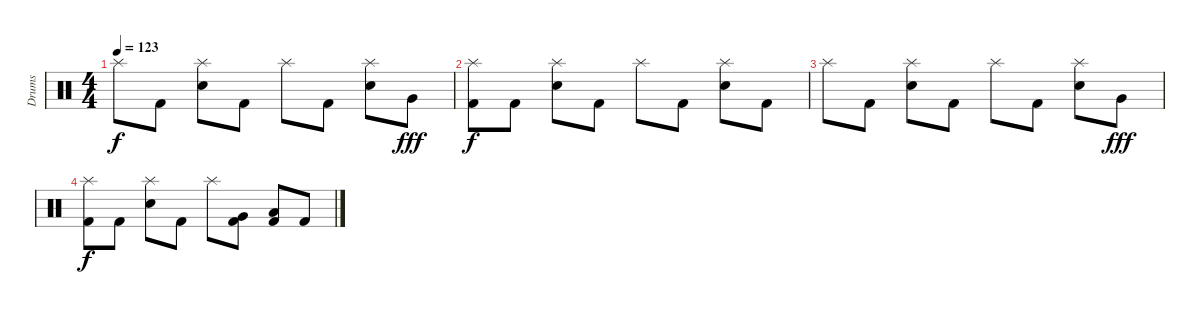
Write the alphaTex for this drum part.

\track ("Drums" "Drums") {instrument percussion}
\staff {score}
\articulation defaults
\ts (4 4)
\tempo 123
\clef neutral
\ks c "Splash (hit)".8{dy f} "Kick (hit) 2".8
("Splash (hit)" "Electric Snare (hit)").8 "Kick (hit) 2".8 "Splash (hit)".8 "Kick (hit) 2".8 ("Splash (hit)" "Electric Snare (hit)").8 "Very Low Tom (hit)".8{dy fff} |
("Splash (hit)" "Kick (hit) 2").8{dy f} "Kick (hit) 2".8 ("Splash (hit)" "Electric Snare (hit)").8 "Kick (hit) 2".8 "Splash (hit)".8 "Kick (hit) 2".8 ("Splash (hit)" "Electric Snare (hit)").8 "Kick (hit) 2".8 |
"Splash (hit)".8 "Kick (hit) 2".8 ("Splash (hit)" "Electric Snare (hit)").8 "Kick (hit) 2".8 "Splash (hit)".8 "Kick (hit) 2".8 ("Splash (hit)" "Electric Snare (hit)").8 "Very Low Tom (hit)".8{dy fff} |
("Splash (hit)" "Kick (hit) 2").8{dy f} "Kick (hit) 2".8 ("Splash (hit)" "Electric Snare (hit)").8 "Kick (hit) 2".8 "Splash (hit)".8 ("Very Low Tom (hit)" "Kick (hit) 2").8 ("Low Floor Tom (hit)" "Kick (hit) 2").8 "Kick (hit) 2".8
